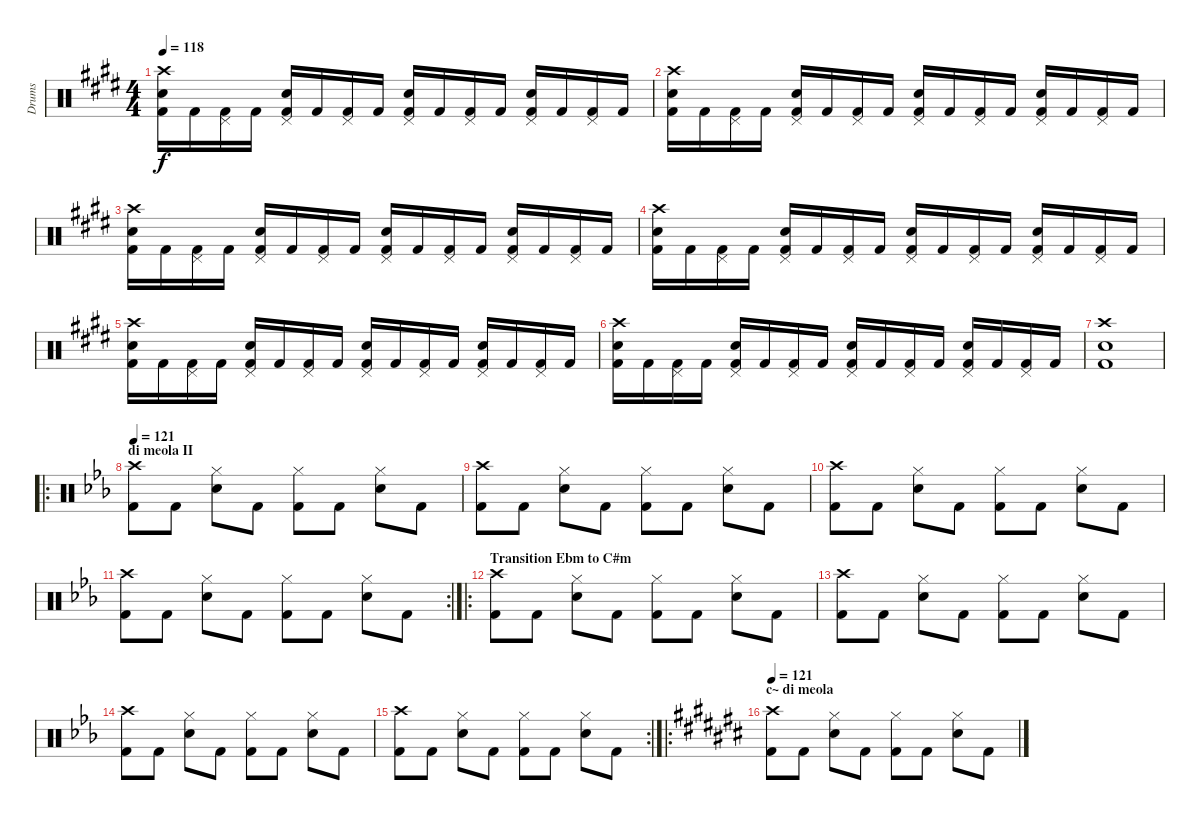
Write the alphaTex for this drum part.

\track ("Drums" "Drums") {instrument percussion}
\staff {score}
\articulation defaults
\ts (4 4)
\tempo 118
\clef neutral
\ks e
("Crash high (hit)" "Electric Snare (hit)" "Kick (hit) 2").16{dy f} "Kick (hit) 2".16 ("Pedal Hi-Hat (hit)" "Kick (hit) 2").16 "Kick (hit) 2".16 ("Pedal Hi-Hat (hit)" "Electric Snare (hit)" "Kick (hit) 2").16 "Kick (hit) 2".16 ("Pedal Hi-Hat (hit)" "Kick (hit) 2").16 "Kick (hit) 2".16 ("Pedal Hi-Hat (hit)" "Electric Snare (hit)" "Kick (hit) 2").16 "Kick (hit) 2".16 ("Pedal Hi-Hat (hit)" "Kick (hit) 2").16 "Kick (hit) 2".16 ("Pedal Hi-Hat (hit)" "Electric Snare (hit)" "Kick (hit) 2").16 "Kick (hit) 2".16 ("Pedal Hi-Hat (hit)" "Kick (hit) 2").16 "Kick (hit) 2".16 |
("Crash high (hit)" "Electric Snare (hit)" "Kick (hit) 2").16 "Kick (hit) 2".16 ("Pedal Hi-Hat (hit)" "Kick (hit) 2").16 "Kick (hit) 2".16 ("Pedal Hi-Hat (hit)" "Electric Snare (hit)" "Kick (hit) 2").16 "Kick (hit) 2".16 ("Pedal Hi-Hat (hit)" "Kick (hit) 2").16 "Kick (hit) 2".16 ("Pedal Hi-Hat (hit)" "Electric Snare (hit)" "Kick (hit) 2").16 "Kick (hit) 2".16 ("Pedal Hi-Hat (hit)" "Kick (hit) 2").16 "Kick (hit) 2".16 ("Pedal Hi-Hat (hit)" "Electric Snare (hit)" "Kick (hit) 2").16 "Kick (hit) 2".16 ("Pedal Hi-Hat (hit)" "Kick (hit) 2").16 "Kick (hit) 2".16 |
("Crash high (hit)" "Electric Snare (hit)" "Kick (hit) 2").16 "Kick (hit) 2".16 ("Pedal Hi-Hat (hit)" "Kick (hit) 2").16 "Kick (hit) 2".16 ("Pedal Hi-Hat (hit)" "Electric Snare (hit)" "Kick (hit) 2").16 "Kick (hit) 2".16 ("Pedal Hi-Hat (hit)" "Kick (hit) 2").16 "Kick (hit) 2".16 ("Pedal Hi-Hat (hit)" "Electric Snare (hit)" "Kick (hit) 2").16 "Kick (hit) 2".16 ("Pedal Hi-Hat (hit)" "Kick (hit) 2").16 "Kick (hit) 2".16 ("Pedal Hi-Hat (hit)" "Electric Snare (hit)" "Kick (hit) 2").16 "Kick (hit) 2".16 ("Pedal Hi-Hat (hit)" "Kick (hit) 2").16 "Kick (hit) 2".16 |
("Crash high (hit)" "Electric Snare (hit)" "Kick (hit) 2").16 "Kick (hit) 2".16 ("Pedal Hi-Hat (hit)" "Kick (hit) 2").16 "Kick (hit) 2".16 ("Pedal Hi-Hat (hit)" "Electric Snare (hit)" "Kick (hit) 2").16 "Kick (hit) 2".16 ("Pedal Hi-Hat (hit)" "Kick (hit) 2").16 "Kick (hit) 2".16 ("Pedal Hi-Hat (hit)" "Electric Snare (hit)" "Kick (hit) 2").16 "Kick (hit) 2".16 ("Pedal Hi-Hat (hit)" "Kick (hit) 2").16 "Kick (hit) 2".16 ("Pedal Hi-Hat (hit)" "Electric Snare (hit)" "Kick (hit) 2").16 "Kick (hit) 2".16 ("Pedal Hi-Hat (hit)" "Kick (hit) 2").16 "Kick (hit) 2".16 |
("Crash high (hit)" "Electric Snare (hit)" "Kick (hit) 2").16 "Kick (hit) 2".16 ("Pedal Hi-Hat (hit)" "Kick (hit) 2").16 "Kick (hit) 2".16 ("Pedal Hi-Hat (hit)" "Electric Snare (hit)" "Kick (hit) 2").16 "Kick (hit) 2".16 ("Pedal Hi-Hat (hit)" "Kick (hit) 2").16 "Kick (hit) 2".16 ("Pedal Hi-Hat (hit)" "Electric Snare (hit)" "Kick (hit) 2").16 "Kick (hit) 2".16 ("Pedal Hi-Hat (hit)" "Kick (hit) 2").16 "Kick (hit) 2".16 ("Pedal Hi-Hat (hit)" "Electric Snare (hit)" "Kick (hit) 2").16 "Kick (hit) 2".16 ("Pedal Hi-Hat (hit)" "Kick (hit) 2").16 "Kick (hit) 2".16 |
("Crash high (hit)" "Electric Snare (hit)" "Kick (hit) 2").16 "Kick (hit) 2".16 ("Pedal Hi-Hat (hit)" "Kick (hit) 2").16 "Kick (hit) 2".16 ("Pedal Hi-Hat (hit)" "Electric Snare (hit)" "Kick (hit) 2").16 "Kick (hit) 2".16 ("Pedal Hi-Hat (hit)" "Kick (hit) 2").16 "Kick (hit) 2".16 ("Pedal Hi-Hat (hit)" "Electric Snare (hit)" "Kick (hit) 2").16 "Kick (hit) 2".16 ("Pedal Hi-Hat (hit)" "Kick (hit) 2").16 "Kick (hit) 2".16 ("Pedal Hi-Hat (hit)" "Electric Snare (hit)" "Kick (hit) 2").16 "Kick (hit) 2".16 ("Pedal Hi-Hat (hit)" "Kick (hit) 2").16 "Kick (hit) 2".16 |
("Crash high (hit)" "Electric Snare (hit)" "Kick (hit) 2").1 |
\ro
\section ("" "di meola II")
\tempo 121
\ks eb
("Crash high (hit)" "Kick (hit) 2").8 "Kick (hit) 2".8 ("Hi-Hat (closed)" "Electric Snare (hit)").8 "Kick (hit) 2".8 ("Hi-Hat (closed)" "Kick (hit) 2").8 "Kick (hit) 2".8 ("Hi-Hat (closed)" "Electric Snare (hit)").8 "Kick (hit) 2".8 |
("Crash high (hit)" "Kick (hit) 2").8 "Kick (hit) 2".8 ("Hi-Hat (closed)" "Electric Snare (hit)").8 "Kick (hit) 2".8 ("Hi-Hat (closed)" "Kick (hit) 2").8 "Kick (hit) 2".8 ("Hi-Hat (closed)" "Electric Snare (hit)").8 "Kick (hit) 2".8 |
("Crash high (hit)" "Kick (hit) 2").8 "Kick (hit) 2".8 ("Hi-Hat (closed)" "Electric Snare (hit)").8 "Kick (hit) 2".8 ("Hi-Hat (closed)" "Kick (hit) 2").8 "Kick (hit) 2".8 ("Hi-Hat (closed)" "Electric Snare (hit)").8 "Kick (hit) 2".8 |
\rc 2
("Crash high (hit)" "Kick (hit) 2").8 "Kick (hit) 2".8 ("Hi-Hat (closed)" "Electric Snare (hit)").8 "Kick (hit) 2".8 ("Hi-Hat (closed)" "Kick (hit) 2").8 "Kick (hit) 2".8 ("Hi-Hat (closed)" "Electric Snare (hit)").8 "Kick (hit) 2".8 |
\ro
\section ("" "Transition Ebm to C#m")
("Crash high (hit)" "Kick (hit) 2").8 "Kick (hit) 2".8 ("Hi-Hat (closed)" "Electric Snare (hit)").8 "Kick (hit) 2".8 ("Hi-Hat (closed)" "Kick (hit) 2").8 "Kick (hit) 2".8 ("Hi-Hat (closed)" "Electric Snare (hit)").8 "Kick (hit) 2".8 |
("Crash high (hit)" "Kick (hit) 2").8 "Kick (hit) 2".8 ("Hi-Hat (closed)" "Electric Snare (hit)").8 "Kick (hit) 2".8 ("Hi-Hat (closed)" "Kick (hit) 2").8 "Kick (hit) 2".8 ("Hi-Hat (closed)" "Electric Snare (hit)").8 "Kick (hit) 2".8 |
("Crash high (hit)" "Kick (hit) 2").8 "Kick (hit) 2".8 ("Hi-Hat (closed)" "Electric Snare (hit)").8 "Kick (hit) 2".8 ("Hi-Hat (closed)" "Kick (hit) 2").8 "Kick (hit) 2".8 ("Hi-Hat (closed)" "Electric Snare (hit)").8 "Kick (hit) 2".8 |
\rc 2
("Crash high (hit)" "Kick (hit) 2").8 "Kick (hit) 2".8 ("Hi-Hat (closed)" "Electric Snare (hit)").8 "Kick (hit) 2".8 ("Hi-Hat (closed)" "Kick (hit) 2").8 "Kick (hit) 2".8 ("Hi-Hat (closed)" "Electric Snare (hit)").8 "Kick (hit) 2".8 |
\ro
\section ("" "c~ di meola")
\tempo 121
\ks c#
("Crash high (hit)" "Kick (hit) 2").8 "Kick (hit) 2".8 ("Hi-Hat (closed)" "Electric Snare (hit)").8 "Kick (hit) 2".8 ("Hi-Hat (closed)" "Kick (hit) 2").8 "Kick (hit) 2".8 ("Hi-Hat (closed)" "Electric Snare (hit)").8 "Kick (hit) 2".8
